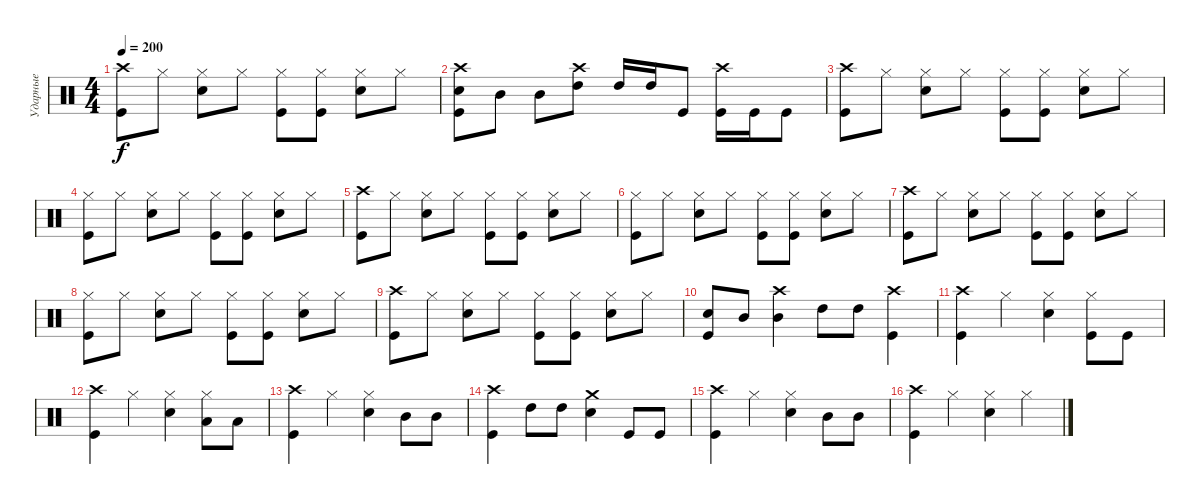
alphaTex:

\track ("Ударные" "Ударные") {instrument percussion}
\staff {score}
\articulation defaults
\ts (4 4)
\tempo 200
\clef neutral
\ks c
("Crash high (hit)" "Kick (hit)").8{dy f} "Hi-Hat (closed)".8 ("Hi-Hat (closed)" "Electric Snare (hit)").8 "Hi-Hat (closed)".8 ("Hi-Hat (closed)" "Kick (hit)").8 ("Hi-Hat (closed)" "Kick (hit)").8 ("Hi-Hat (closed)" "Electric Snare (hit)").8 "Hi-Hat (closed)".8 |
("Crash high (hit)" "Electric Snare (hit)" "Kick (hit)").8 "Mid Tom (hit)".8 "Mid Tom (hit)".8 ("Crash high (hit)" "High Tom (hit)").8 "High Tom (hit)".16 "High Tom (hit)".16 "Kick (hit)".8 ("Crash high (hit)" "Kick (hit)").16 "Kick (hit)".16 "Kick (hit)".8 |
("Crash high (hit)" "Kick (hit)").8 "Hi-Hat (closed)".8 ("Hi-Hat (closed)" "Electric Snare (hit)").8 "Hi-Hat (closed)".8 ("Hi-Hat (closed)" "Kick (hit)").8 ("Hi-Hat (closed)" "Kick (hit)").8 ("Hi-Hat (closed)" "Electric Snare (hit)").8 "Hi-Hat (closed)".8 |
("Hi-Hat (closed)" "Kick (hit)").8 "Hi-Hat (closed)".8 ("Hi-Hat (closed)" "Electric Snare (hit)").8 "Hi-Hat (closed)".8 ("Hi-Hat (closed)" "Kick (hit)").8 ("Hi-Hat (closed)" "Kick (hit)").8 ("Hi-Hat (closed)" "Electric Snare (hit)").8 "Hi-Hat (closed)".8 |
("Crash high (hit)" "Kick (hit)").8 "Hi-Hat (closed)".8 ("Hi-Hat (closed)" "Electric Snare (hit)").8 "Hi-Hat (closed)".8 ("Hi-Hat (closed)" "Kick (hit)").8 ("Hi-Hat (closed)" "Kick (hit)").8 ("Hi-Hat (closed)" "Electric Snare (hit)").8 "Hi-Hat (closed)".8 |
("Hi-Hat (closed)" "Kick (hit)").8 "Hi-Hat (closed)".8 ("Hi-Hat (closed)" "Electric Snare (hit)").8 "Hi-Hat (closed)".8 ("Hi-Hat (closed)" "Kick (hit)").8 ("Hi-Hat (closed)" "Kick (hit)").8 ("Hi-Hat (closed)" "Electric Snare (hit)").8 "Hi-Hat (closed)".8 |
("Crash high (hit)" "Kick (hit)").8 "Hi-Hat (closed)".8 ("Hi-Hat (closed)" "Electric Snare (hit)").8 "Hi-Hat (closed)".8 ("Hi-Hat (closed)" "Kick (hit)").8 ("Hi-Hat (closed)" "Kick (hit)").8 ("Hi-Hat (closed)" "Electric Snare (hit)").8 "Hi-Hat (closed)".8 |
("Hi-Hat (closed)" "Kick (hit)").8 "Hi-Hat (closed)".8 ("Hi-Hat (closed)" "Electric Snare (hit)").8 "Hi-Hat (closed)".8 ("Hi-Hat (closed)" "Kick (hit)").8 ("Hi-Hat (closed)" "Kick (hit)").8 ("Hi-Hat (closed)" "Electric Snare (hit)").8 "Hi-Hat (closed)".8 |
("Crash high (hit)" "Kick (hit)").8 "Hi-Hat (closed)".8 ("Hi-Hat (closed)" "Electric Snare (hit)").8 "Hi-Hat (closed)".8 ("Hi-Hat (closed)" "Kick (hit)").8 ("Hi-Hat (closed)" "Kick (hit)").8 ("Hi-Hat (closed)" "Electric Snare (hit)").8 "Hi-Hat (closed)".8 |
("Electric Snare (hit)" "Kick (hit)").8 "Mid Tom (hit)".8 ("Crash high (hit)" "Mid Tom (hit)").4 "High Tom (hit)".8 "High Tom (hit)".8 ("Crash high (hit)" "Kick (hit)").4 |
("Crash high (hit)" "Kick (hit)").4 "Hi-Hat (closed)".4 ("Hi-Hat (closed)" "Electric Snare (hit)").4 ("Hi-Hat (closed)" "Kick (hit)").8 "Kick (hit)".8 |
("Crash high (hit)" "Kick (hit)").4 "Hi-Hat (closed)".4 ("Hi-Hat (closed)" "Electric Snare (hit)").4 ("Low Tom (hit)" "Hi-Hat (closed)").8 "Low Tom (hit)".8 |
("Crash high (hit)" "Kick (hit)").4 "Hi-Hat (closed)".4 ("Hi-Hat (closed)" "Electric Snare (hit)").4 "Mid Tom (hit)".8 "Mid Tom (hit)".8 |
("Crash high (hit)" "Kick (hit)").4 "High Tom (hit)".8 "High Tom (hit)".8 ("Crash medium (hit)" "Electric Snare (hit)").4 "Kick (hit)".8 "Kick (hit)".8 |
("Crash high (hit)" "Kick (hit)").4 "Hi-Hat (closed)".4 ("Hi-Hat (closed)" "Electric Snare (hit)").4 "Mid Tom (hit)".8 "Mid Tom (hit)".8 |
("Crash high (hit)" "Kick (hit)").4 "Hi-Hat (closed)".4 ("Hi-Hat (closed)" "Electric Snare (hit)").4 "Hi-Hat (closed)".4
